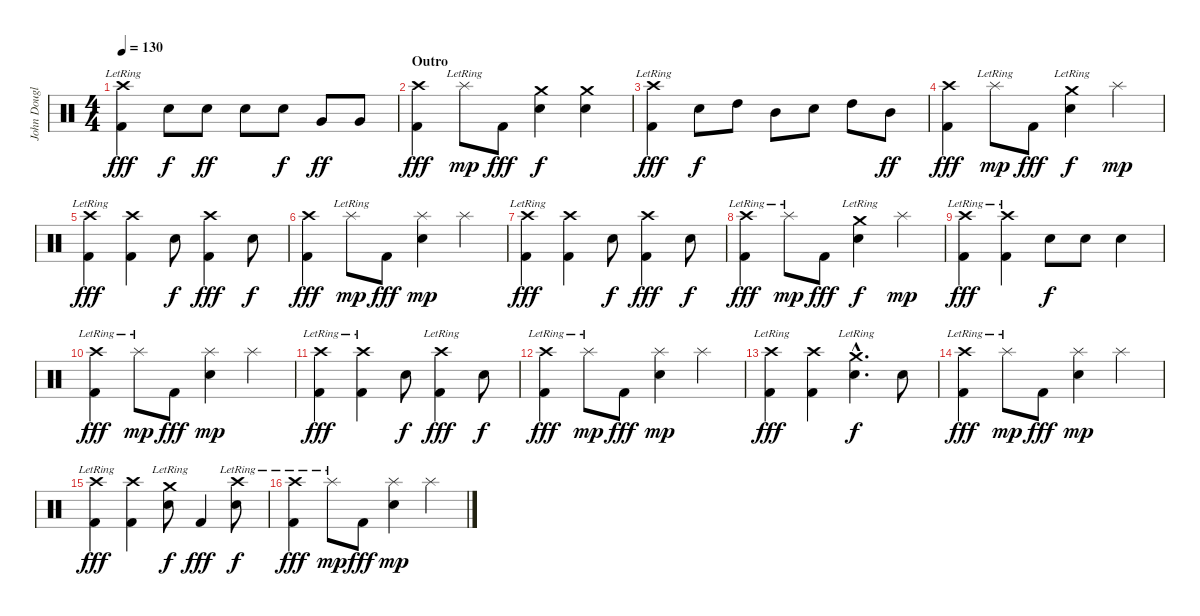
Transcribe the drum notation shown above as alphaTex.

\track ("John Douglas (Drums)" "John Dougl") {instrument percussion}
\staff {score}
\articulation defaults
\ts (4 4)
\tempo 130
\clef neutral
\ks c
("Crash high (hit)"{lr} "Kick (hit) 2").4{dy fff} "Snare (hit) 2".8{dy f} "Snare (hit) 2".8{dy ff} "Snare (hit) 2".8 "Snare (hit) 2".8{dy f} "Very Low Tom (hit)".8{dy ff} "Very Low Tom (hit)".8 |
\section ("" "Outro")
("Crash high (hit)" "Kick (hit) 2").4{dy fff} "Splash (hit)"{lr}.8{dy mp} "Kick (hit) 2".8{dy fff} ("Crash medium (hit)" "Snare (hit) 2").4{dy f} ("Crash medium (hit)" "Snare (hit) 2").4 |
("Crash high (hit)"{lr} "Kick (hit) 2").4{dy fff} "Snare (hit) 2".8{dy f} "High Tom (hit)".8 "Mid Tom (hit)".8 "Snare (hit) 2".8 "High Tom (hit)".8 "Mid Tom (hit)".8{dy ff} |
("Crash high (hit)" "Kick (hit) 2").4{dy fff} "Splash (hit)"{lr}.8{dy mp} "Kick (hit) 2".8{dy fff} ("Crash medium (hit)"{lr} "Snare (hit) 2").4{dy f} "Splash (hit)".4{dy mp} |
("Crash high (hit)"{lr} "Kick (hit) 2").4{dy fff} ("Crash high (hit)" "Kick (hit) 2").4 "Snare (hit) 2".8{dy f} ("Crash high (hit)" "Kick (hit) 2").4{dy fff} "Snare (hit) 2".8{dy f} |
("Crash high (hit)" "Kick (hit) 2").4{dy fff} "Splash (hit)"{lr}.8{dy mp} "Kick (hit) 2".8{dy fff} ("Splash (hit)" "Snare (hit) 2").4{dy mp} "Splash (hit)".4 |
("Crash high (hit)"{lr} "Kick (hit) 2").4{dy fff} ("Crash high (hit)" "Kick (hit) 2").4 "Snare (hit) 2".8{dy f} ("Crash high (hit)" "Kick (hit) 2").4{dy fff} "Snare (hit) 2".8{dy f} |
("Crash high (hit)"{lr} "Kick (hit) 2").4{dy fff} "Splash (hit)"{lr}.8{dy mp} "Kick (hit) 2".8{dy fff} ("Crash medium (hit)"{lr} "Snare (hit) 2").4{dy f} "Splash (hit)".4{dy mp} |
("Crash high (hit)"{lr} "Kick (hit) 2").4{dy fff} ("Crash high (hit)"{lr} "Kick (hit) 2").4 "Snare (hit) 2".8{dy f} "Snare (hit) 2".8 "Snare (hit) 2".4 |
("Crash high (hit)"{lr} "Kick (hit) 2").4{dy fff} "Splash (hit)"{lr}.8{dy mp} "Kick (hit) 2".8{dy fff} ("Splash (hit)" "Snare (hit) 2").4{dy mp} "Splash (hit)".4 |
("Crash high (hit)"{lr} "Kick (hit) 2").4{dy fff} ("Crash high (hit)"{lr} "Kick (hit) 2").4 "Snare (hit) 2".8{dy f} ("Crash high (hit)"{lr} "Kick (hit) 2").4{dy fff} "Snare (hit) 2".8{dy f} |
("Crash high (hit)"{lr} "Kick (hit) 2").4{dy fff} "Splash (hit)"{lr}.8{dy mp} "Kick (hit) 2".8{dy fff} ("Splash (hit)" "Snare (hit) 2").4{dy mp} "Splash (hit)".4 |
("Crash high (hit)"{lr} "Kick (hit) 2").4{dy fff} ("Crash high (hit)" "Kick (hit) 2").4 ("Crash medium (hit)"{hac lr} "Snare (hit) 2"{hac}).4{d dy f} "Snare (hit) 2".8 |
("Crash high (hit)"{lr} "Kick (hit) 2").4{dy fff} "Splash (hit)"{lr}.8{dy mp} "Kick (hit) 2".8{dy fff} ("Splash (hit)" "Snare (hit) 2").4{dy mp} "Splash (hit)".4 |
("Crash high (hit)"{lr} "Kick (hit) 2").4{dy fff} ("Crash high (hit)" "Kick (hit) 2").4 ("Crash medium (hit)"{lr} "Snare (hit) 2").8{dy f} "Kick (hit) 2".4{dy fff} ("Crash high (hit)"{lr} "Snare (hit) 2").8{dy f} |
("Crash high (hit)"{lr} "Kick (hit) 2").4{dy fff} "Splash (hit)"{lr}.8{dy mp} "Kick (hit) 2".8{dy fff} ("Splash (hit)" "Snare (hit) 2").4{dy mp} "Splash (hit)".4
